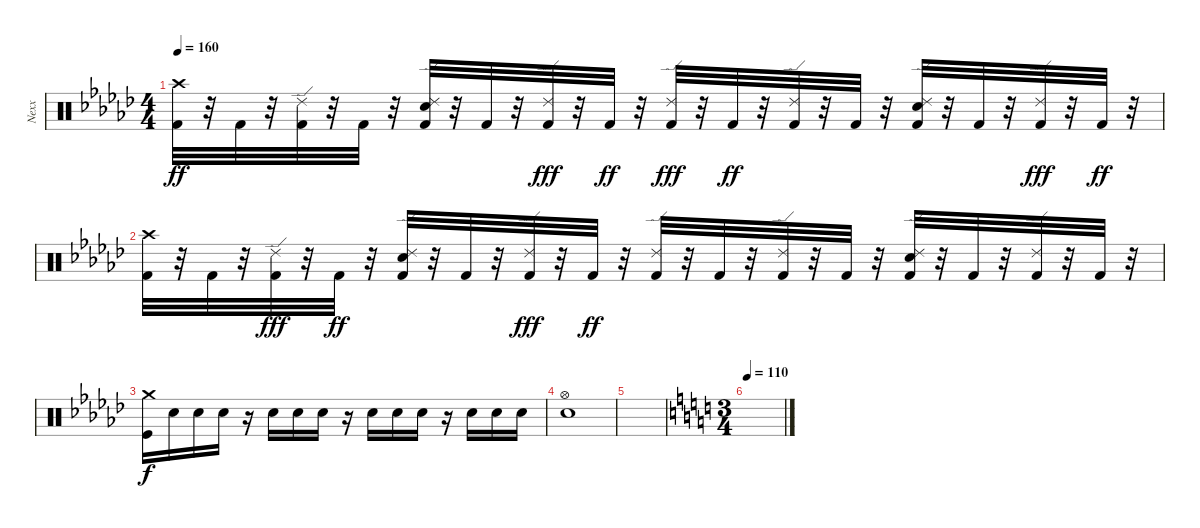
\track ("Nexx" "Nexx") {instrument percussion}
\staff {score}
\articulation defaults
\ts (4 4)
\tempo 160
\clef neutral
\ks ebminor
("Crash high (hit)" "Kick (hit) 2").32{dy ff volume 13} r.32 "Kick (hit) 2".32 r.32 ("Ride (edge) 2" "Kick (hit) 2").32 r.32 "Kick (hit) 2".32 r.32 ("Kick (hit) 2" "Ride (edge) 2" "Electric Snare (hit)").32 r.32 "Kick (hit) 2".32 r.32 ("Kick (hit) 2" "Ride (edge) 2").32{dy fff} r.32 "Kick (hit) 2".32{dy ff} r.32 ("Kick (hit) 2" "Ride (edge) 2").32{dy fff} r.32 "Kick (hit) 2".32{dy ff} r.32 ("Ride (edge) 2" "Kick (hit) 2").32 r.32 "Kick (hit) 2".32 r.32 ("Electric Snare (hit)" "Ride (edge) 2" "Kick (hit) 2").32 r.32 "Kick (hit) 2".32 r.32 ("Kick (hit) 2" "Ride (edge) 2").32{dy fff} r.32 "Kick (hit) 2".32{dy ff} r.32 |
("Kick (hit) 2" "Crash high (hit)").32 r.32 "Kick (hit) 2".32 r.32 ("Kick (hit) 2" "Ride (edge) 2").32{dy fff} r.32 "Kick (hit) 2".32{dy ff} r.32 ("Electric Snare (hit)" "Ride (edge) 2" "Kick (hit) 2").32 r.32 "Kick (hit) 2".32 r.32 ("Kick (hit) 2" "Ride (edge) 2").32{dy fff} r.32 "Kick (hit) 2".32{dy ff} r.32 ("Ride (edge) 2" "Kick (hit) 2").32 r.32 "Kick (hit) 2".32 r.32 ("Ride (edge) 2" "Kick (hit) 2").32 r.32 "Kick (hit) 2".32 r.32 ("Kick (hit) 2" "Ride (edge) 2" "Electric Snare (hit)").32 r.32 "Kick (hit) 2".32 r.32 ("Ride (edge) 2" "Kick (hit) 2").32 r.32 "Kick (hit) 2".32 r.32 |
("Crash medium (hit)" "Kick (hit)").16{dy f} "Snare (hit) 2".16 "Snare (hit) 2".16 "Snare (hit) 2".16 r.16 "Snare (hit) 2".16 "Snare (hit) 2".16 "Snare (hit) 2".16 r.16 "Snare (hit) 2".16 "Snare (hit) 2".16 "Snare (hit) 2".16 r.16 "Snare (hit) 2".16 "Snare (hit) 2".16 "Snare (hit) 2".16 |
("Snare (hit) 2" "Hi-Hat (open)").1 |
|
\ts (3 4)
\tempo 110
\ks c
